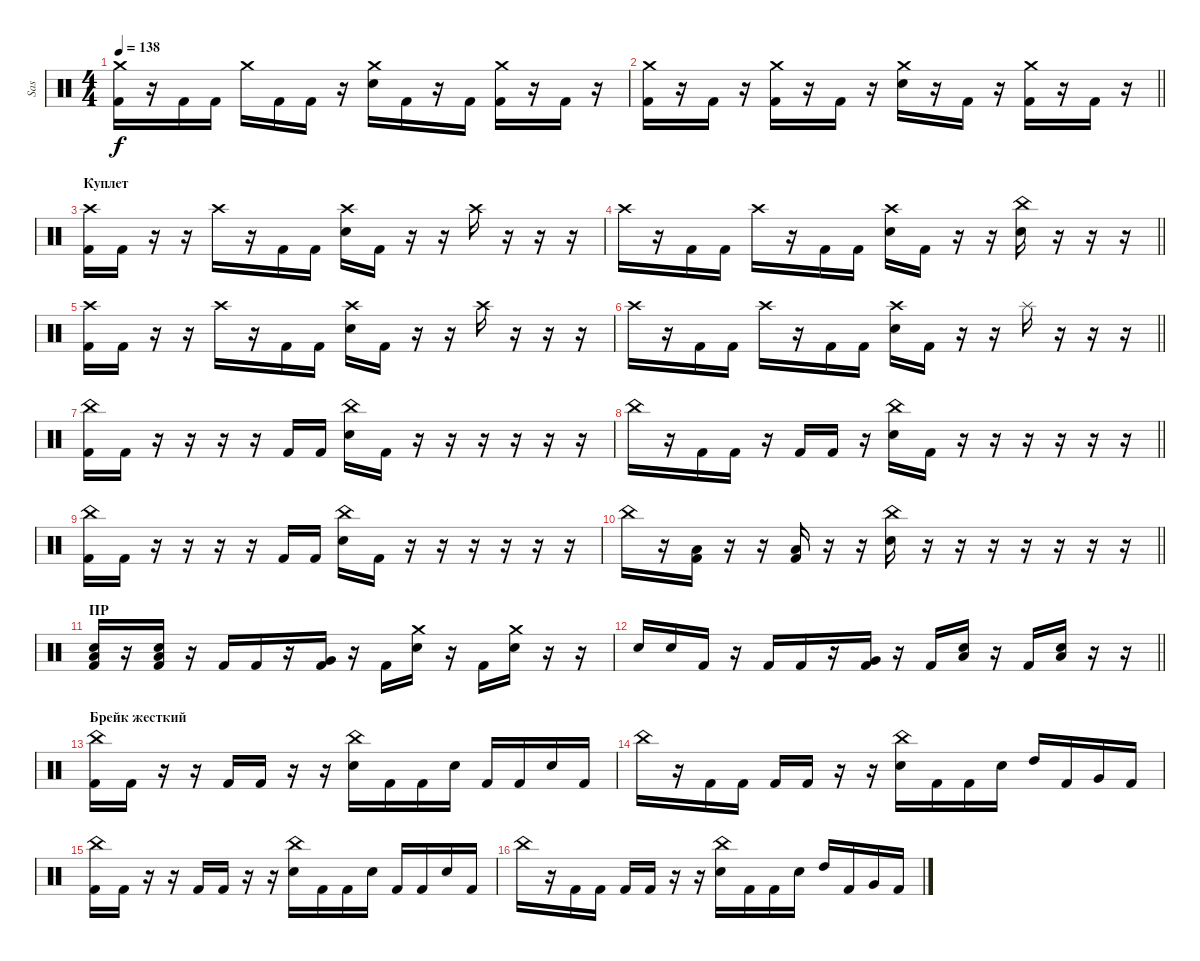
\track ("Sas" "Sas") {instrument percussion}
\staff {score}
\articulation defaults
\ts (4 4)
\tempo 138
\clef neutral
\ks c
("Crash medium (hit)" "Kick (hit) 2").16{dy f} r.16 "Kick (hit) 2".16 "Kick (hit) 2".16 "Crash medium (hit)".16 "Kick (hit) 2".16 "Kick (hit) 2".16 r.16 ("Crash medium (hit)" "Snare (hit) 2").16 "Kick (hit) 2".16 r.16 "Kick (hit) 2".16 ("Crash medium (hit)" "Kick (hit) 2").16 r.16 "Kick (hit) 2".16 r.16 |
\barLineRight lightlight
("Crash medium (hit)" "Kick (hit) 2").16 r.16 "Kick (hit) 2".16 r.16 ("Crash medium (hit)" "Kick (hit) 2").16 r.16 "Kick (hit) 2".16 r.16 ("Crash medium (hit)" "Snare (hit) 2").16 r.16 "Kick (hit) 2".16 r.16 ("Crash medium (hit)" "Kick (hit) 2").16 r.16 "Kick (hit) 2".16 r.16 |
\section ("" "Куплет")
("Crash high (hit)" "Kick (hit) 2").16 "Kick (hit) 2".16 r.16 r.16 "Crash high (hit)".16 r.16 "Kick (hit) 2".16 "Kick (hit) 2".16 ("Crash high (hit)" "Snare (hit) 2").16 "Kick (hit) 2".16 r.16 r.16 "Crash high (hit)".16 r.16 r.16 r.16 |
\barLineRight lightlight "Crash high (hit)".16
r.16 "Kick (hit) 2".16 "Kick (hit) 2".16 "Crash high (hit)".16 r.16 "Kick (hit) 2".16 "Kick (hit) 2".16 ("Crash high (hit)" "Snare (hit) 2").16 "Kick (hit) 2".16 r.16 r.16 ("China (hit)" "Snare (hit) 2").16 r.16 r.16 r.16 |
("Crash high (hit)" "Kick (hit) 2").16 "Kick (hit) 2".16 r.16 r.16 "Crash high (hit)".16 r.16 "Kick (hit) 2".16 "Kick (hit) 2".16 ("Crash high (hit)" "Snare (hit) 2").16 "Kick (hit) 2".16 r.16 r.16 "Crash high (hit)".16 r.16 r.16 r.16 |
\barLineRight lightlight "Crash high (hit)".16
r.16 "Kick (hit) 2".16 "Kick (hit) 2".16 "Crash high (hit)".16 r.16 "Kick (hit) 2".16 "Kick (hit) 2".16 ("Crash high (hit)" "Snare (hit) 2").16 "Kick (hit) 2".16 r.16 r.16 "Splash (hit)".16 r.16 r.16 r.16 |
("China (hit)" "Kick (hit) 2").16 "Kick (hit) 2".16 r.16 r.16 r.16 r.16 "Kick (hit) 2".16 "Kick (hit) 2".16 ("China (hit)" "Snare (hit) 2").16 "Kick (hit) 2".16 r.16 r.16 r.16 r.16 r.16 r.16 |
\barLineRight lightlight "China (hit)".16
r.16 "Kick (hit) 2".16 "Kick (hit) 2".16 r.16 "Kick (hit) 2".16 "Kick (hit) 2".16 r.16 ("China (hit)" "Snare (hit) 2").16 "Kick (hit) 2".16 r.16 r.16 r.16 r.16 r.16 r.16 |
("China (hit)" "Kick (hit) 2").16 "Kick (hit) 2".16 r.16 r.16 r.16 r.16 "Kick (hit) 2".16 "Kick (hit) 2".16 ("China (hit)" "Snare (hit) 2").16 "Kick (hit) 2".16 r.16 r.16 r.16 r.16 r.16 r.16 |
\barLineRight lightlight "China (hit)".16
r.16 ("Low Tom (hit)" "Kick (hit) 2").16 r.16 r.16 ("Low Tom (hit)" "Kick (hit) 2").16 r.16 r.16 ("China (hit)" "Snare (hit) 2").16 r.16 r.16 r.16 r.16 r.16 r.16 r.16 |
\section ("" "ПР")
("Low Tom (hit)" "Snare (hit) 2" "Kick (hit) 2").16 r.16 ("Low Tom (hit)" "Snare (hit) 2" "Kick (hit) 2").16 r.16 "Kick (hit) 2".16 "Kick (hit) 2".16 r.16 ("Very Low Tom (hit)" "Kick (hit) 2").16 r.16 "Kick (hit) 2".16 ("Crash medium (hit)" "Snare (hit) 2").16 r.16 "Kick (hit) 2".16 ("Crash medium (hit)" "Snare (hit) 2").16 r.16 r.16 |
\barLineRight lightlight "Snare (hit) 2".16 "Snare (hit) 2".16 "Kick (hit) 2".16
r.16 "Kick (hit) 2".16 "Kick (hit) 2".16 r.16 ("Very Low Tom (hit)" "Kick (hit) 2").16 r.16 "Kick (hit) 2".16 ("Low Tom (hit)" "Snare (hit) 2").16 r.16 "Kick (hit) 2".16 ("Low Tom (hit)" "Snare (hit) 2").16 r.16 r.16 |
\section ("" "Брейк жесткий")
("China (hit)" "Kick (hit) 2").16 "Kick (hit) 2".16 r.16 r.16 "Kick (hit) 2".16 "Kick (hit) 2".16 r.16 r.16 ("China (hit)" "Snare (hit) 2").16 "Kick (hit) 2".16 "Kick (hit) 2".16 "Snare (hit) 2".16 "Kick (hit) 2".16 "Kick (hit) 2".16 "Snare (hit) 2".16 "Kick (hit) 2".16 |
"China (hit)".16 r.16 "Kick (hit) 2".16 "Kick (hit) 2".16 "Kick (hit) 2".16 "Kick (hit) 2".16 r.16 r.16 ("China (hit)" "Snare (hit) 2").16 "Kick (hit) 2".16 "Kick (hit) 2".16 "Snare (hit) 2".16 "High Tom (hit)".16 "Kick (hit) 2".16 "Very Low Tom (hit)".16 "Kick (hit) 2".16 |
("China (hit)" "Kick (hit) 2").16 "Kick (hit) 2".16 r.16 r.16 "Kick (hit) 2".16 "Kick (hit) 2".16 r.16 r.16 ("China (hit)" "Snare (hit) 2").16 "Kick (hit) 2".16 "Kick (hit) 2".16 "Snare (hit) 2".16 "Kick (hit) 2".16 "Kick (hit) 2".16 "Snare (hit) 2".16 "Kick (hit) 2".16 |
"China (hit)".16 r.16 "Kick (hit) 2".16 "Kick (hit) 2".16 "Kick (hit) 2".16 "Kick (hit) 2".16 r.16 r.16 ("China (hit)" "Snare (hit) 2").16 "Kick (hit) 2".16 "Kick (hit) 2".16 "Snare (hit) 2".16 "High Tom (hit)".16 "Kick (hit) 2".16 "Very Low Tom (hit)".16 "Kick (hit) 2".16
